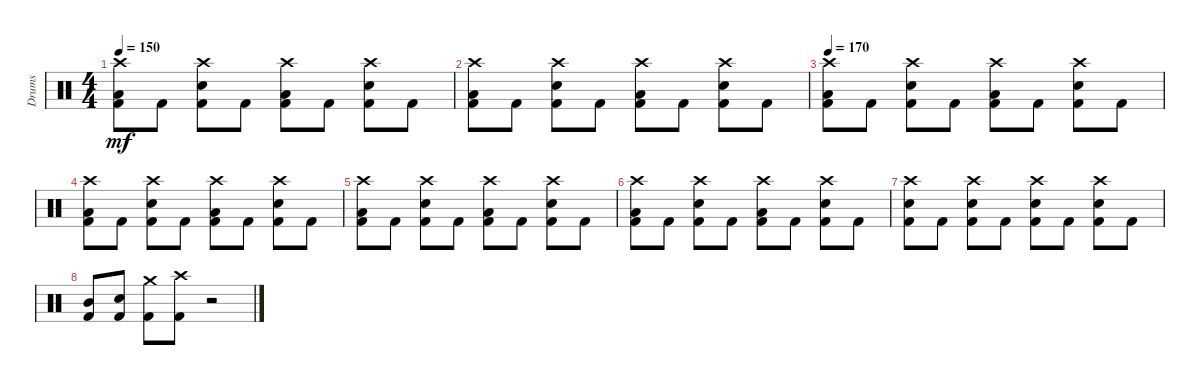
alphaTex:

\track ("Drums" "Drums") {instrument percussion}
\staff {score}
\articulation defaults
\ts (4 4)
\tempo 150
\clef neutral
\ks c
("Crash high (hit)" "Low Tom (hit)" "Kick (hit) 2").8{dy mf} "Kick (hit) 2".8 ("Crash high (hit)" "Electric Snare (hit)" "Kick (hit) 2").8 "Kick (hit) 2".8 ("Crash high (hit)" "Low Tom (hit)" "Kick (hit) 2").8 "Kick (hit) 2".8 ("Crash high (hit)" "Electric Snare (hit)" "Kick (hit) 2").8 "Kick (hit) 2".8 |
("Crash high (hit)" "Low Tom (hit)" "Kick (hit) 2").8 "Kick (hit) 2".8 ("Crash high (hit)" "Electric Snare (hit)" "Kick (hit) 2").8 "Kick (hit) 2".8 ("Crash high (hit)" "Low Tom (hit)" "Kick (hit) 2").8 "Kick (hit) 2".8 ("Crash high (hit)" "Electric Snare (hit)" "Kick (hit) 2").8 "Kick (hit) 2".8 |
\tempo 170
("Crash high (hit)" "Low Tom (hit)" "Kick (hit) 2").8 "Kick (hit) 2".8 ("Crash high (hit)" "Electric Snare (hit)" "Kick (hit) 2").8 "Kick (hit) 2".8 ("Crash high (hit)" "Low Tom (hit)" "Kick (hit) 2").8 "Kick (hit) 2".8 ("Crash high (hit)" "Electric Snare (hit)" "Kick (hit) 2").8 "Kick (hit) 2".8 |
("Crash high (hit)" "Low Tom (hit)" "Kick (hit) 2").8 "Kick (hit) 2".8 ("Crash high (hit)" "Electric Snare (hit)" "Kick (hit) 2").8 "Kick (hit) 2".8 ("Crash high (hit)" "Low Tom (hit)" "Kick (hit) 2").8 "Kick (hit) 2".8 ("Crash high (hit)" "Electric Snare (hit)" "Kick (hit) 2").8 "Kick (hit) 2".8 |
("Crash high (hit)" "Low Tom (hit)" "Kick (hit) 2").8 "Kick (hit) 2".8 ("Crash high (hit)" "Electric Snare (hit)" "Kick (hit) 2").8 "Kick (hit) 2".8 ("Crash high (hit)" "Low Tom (hit)" "Kick (hit) 2").8 "Kick (hit) 2".8 ("Crash high (hit)" "Electric Snare (hit)" "Kick (hit) 2").8 "Kick (hit) 2".8 |
("Crash high (hit)" "Low Tom (hit)" "Kick (hit) 2").8 "Kick (hit) 2".8 ("Crash high (hit)" "Electric Snare (hit)" "Kick (hit) 2").8 "Kick (hit) 2".8 ("Crash high (hit)" "Low Tom (hit)" "Kick (hit) 2").8 "Kick (hit) 2".8 ("Crash high (hit)" "Electric Snare (hit)" "Kick (hit) 2").8 "Kick (hit) 2".8 |
("Crash high (hit)" "Electric Snare (hit)" "Kick (hit) 2").8 "Kick (hit) 2".8 ("Crash high (hit)" "Electric Snare (hit)" "Kick (hit) 2").8 "Kick (hit) 2".8 ("Crash high (hit)" "Electric Snare (hit)" "Kick (hit) 2").8 "Kick (hit) 2".8 ("Crash high (hit)" "Electric Snare (hit)" "Kick (hit) 2").8 "Kick (hit) 2".8 |
("Mid Tom (hit)" "Kick (hit) 2").8 ("Electric Snare (hit)" "Kick (hit) 2").8 ("Crash medium (hit)" "Kick (hit) 2").8 ("Crash high (hit)" "Kick (hit) 2").8 r.2
